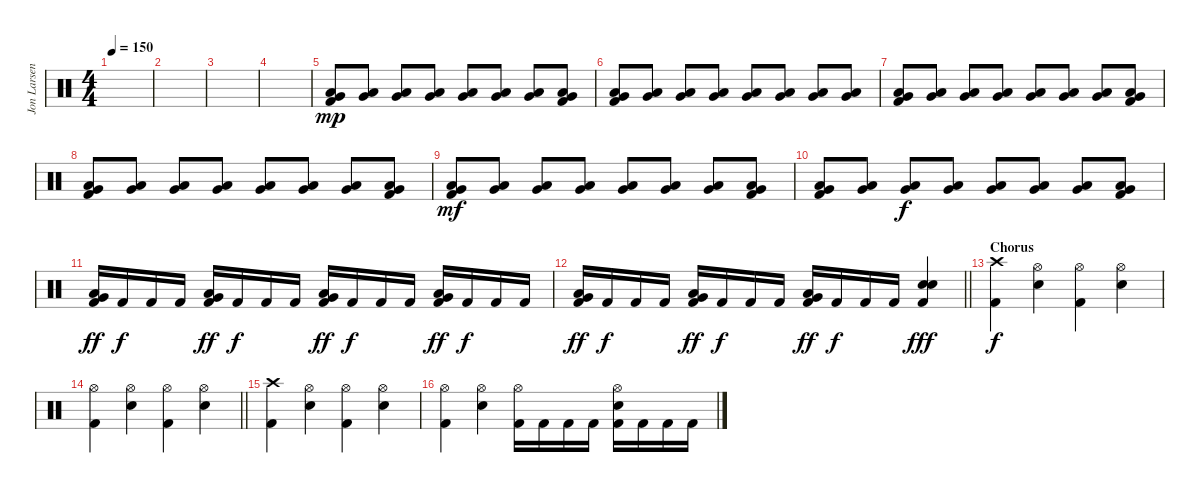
\track ("Jon Larsen" "Jon Larsen") {instrument percussion bank 10}
\staff {score}
\articulation defaults
\ts (4 4)
\tempo 150
\clef neutral
\ks c
|
|
|
|
("Low Floor Tom (hit)" "Very Low Tom (hit)" "Kick (hit) 2").8{dy mp} ("Low Floor Tom (hit)" "Very Low Tom (hit)").8 ("Low Floor Tom (hit)" "Very Low Tom (hit)").8 ("Low Floor Tom (hit)" "Very Low Tom (hit)").8 ("Low Floor Tom (hit)" "Very Low Tom (hit)").8 ("Low Floor Tom (hit)" "Very Low Tom (hit)").8 ("Low Floor Tom (hit)" "Very Low Tom (hit)").8 ("Low Floor Tom (hit)" "Very Low Tom (hit)" "Kick (hit) 2").8 |
("Low Floor Tom (hit)" "Very Low Tom (hit)" "Kick (hit) 2").8 ("Low Floor Tom (hit)" "Very Low Tom (hit)").8 ("Low Floor Tom (hit)" "Very Low Tom (hit)").8 ("Low Floor Tom (hit)" "Very Low Tom (hit)").8 ("Low Floor Tom (hit)" "Very Low Tom (hit)").8 ("Low Floor Tom (hit)" "Very Low Tom (hit)").8 ("Low Floor Tom (hit)" "Very Low Tom (hit)").8 ("Low Floor Tom (hit)" "Very Low Tom (hit)").8 |
("Low Floor Tom (hit)" "Very Low Tom (hit)" "Kick (hit) 2").8 ("Low Floor Tom (hit)" "Very Low Tom (hit)").8 ("Low Floor Tom (hit)" "Very Low Tom (hit)").8 ("Low Floor Tom (hit)" "Very Low Tom (hit)").8 ("Low Floor Tom (hit)" "Very Low Tom (hit)").8 ("Low Floor Tom (hit)" "Very Low Tom (hit)").8 ("Low Floor Tom (hit)" "Very Low Tom (hit)").8 ("Low Floor Tom (hit)" "Very Low Tom (hit)" "Kick (hit) 2").8 |
("Low Floor Tom (hit)" "Very Low Tom (hit)" "Kick (hit) 2").8 ("Low Floor Tom (hit)" "Very Low Tom (hit)").8 ("Low Floor Tom (hit)" "Very Low Tom (hit)").8 ("Low Floor Tom (hit)" "Very Low Tom (hit)").8 ("Low Floor Tom (hit)" "Very Low Tom (hit)").8 ("Low Floor Tom (hit)" "Very Low Tom (hit)").8 ("Low Floor Tom (hit)" "Very Low Tom (hit)").8 ("Low Floor Tom (hit)" "Very Low Tom (hit)" "Kick (hit) 2").8 |
("Low Floor Tom (hit)" "Very Low Tom (hit)" "Kick (hit) 2").8{dy mf} ("Low Floor Tom (hit)" "Very Low Tom (hit)").8 ("Low Floor Tom (hit)" "Very Low Tom (hit)").8 ("Low Floor Tom (hit)" "Very Low Tom (hit)").8 ("Low Floor Tom (hit)" "Very Low Tom (hit)").8 ("Low Floor Tom (hit)" "Very Low Tom (hit)").8 ("Low Floor Tom (hit)" "Very Low Tom (hit)").8 ("Low Floor Tom (hit)" "Very Low Tom (hit)" "Kick (hit) 2").8 |
("Low Floor Tom (hit)" "Very Low Tom (hit)" "Kick (hit) 2").8 ("Low Floor Tom (hit)" "Very Low Tom (hit)").8 ("Low Floor Tom (hit)" "Very Low Tom (hit)").8{dy f} ("Low Floor Tom (hit)" "Very Low Tom (hit)").8 ("Low Floor Tom (hit)" "Very Low Tom (hit)").8 ("Low Floor Tom (hit)" "Very Low Tom (hit)").8 ("Low Floor Tom (hit)" "Very Low Tom (hit)").8 ("Low Floor Tom (hit)" "Very Low Tom (hit)" "Kick (hit) 2").8 |
("Very Low Tom (hit)" "Low Floor Tom (hit)" "Kick (hit) 2").16{dy ff} "Kick (hit) 2".16{dy f} "Kick (hit) 2".16 "Kick (hit) 2".16 ("Very Low Tom (hit)" "Low Floor Tom (hit)" "Kick (hit) 2").16{dy ff} "Kick (hit) 2".16{dy f} "Kick (hit) 2".16 "Kick (hit) 2".16 ("Very Low Tom (hit)" "Low Floor Tom (hit)" "Kick (hit) 2").16{dy ff} "Kick (hit) 2".16{dy f} "Kick (hit) 2".16 "Kick (hit) 2".16 ("Very Low Tom (hit)" "Low Floor Tom (hit)" "Kick (hit) 2").16{dy ff} "Kick (hit) 2".16{dy f} "Kick (hit) 2".16 "Kick (hit) 2".16 |
\barLineRight lightlight
("Very Low Tom (hit)" "Low Floor Tom (hit)" "Kick (hit) 2").16{dy ff} "Kick (hit) 2".16{dy f} "Kick (hit) 2".16 "Kick (hit) 2".16 ("Very Low Tom (hit)" "Low Floor Tom (hit)" "Kick (hit) 2").16{dy ff} "Kick (hit) 2".16{dy f} "Kick (hit) 2".16 "Kick (hit) 2".16 ("Very Low Tom (hit)" "Low Floor Tom (hit)" "Kick (hit) 2").16{dy ff} "Kick (hit) 2".16{dy f} "Kick (hit) 2".16 "Kick (hit) 2".16 ("Electric Snare (hit)" "Electric Snare (hit)" "Kick (hit) 2").4{dy fff} |
\section ("" "Chorus")
("Crash high (hit)" "Kick (hit) 2").4{dy f} ("Hi-Hat (open)" "Electric Snare (hit)").4 ("Hi-Hat (open)" "Kick (hit) 2").4 ("Hi-Hat (open)" "Electric Snare (hit)").4 |
\barLineRight lightlight
("Hi-Hat (open)" "Kick (hit) 2").4 ("Hi-Hat (open)" "Electric Snare (hit)").4 ("Hi-Hat (open)" "Kick (hit) 2").4 ("Hi-Hat (open)" "Electric Snare (hit)").4 |
\section ("" "")
("Crash high (hit)" "Kick (hit) 2").4 ("Hi-Hat (open)" "Electric Snare (hit)").4 ("Hi-Hat (open)" "Kick (hit) 2").4 ("Hi-Hat (open)" "Electric Snare (hit)").4 |
("Hi-Hat (open)" "Kick (hit) 2").4 ("Hi-Hat (open)" "Electric Snare (hit)").4 ("Hi-Hat (open)" "Kick (hit) 2").16 "Kick (hit) 2".16 "Kick (hit) 2".16 "Kick (hit) 2".16 ("Hi-Hat (open)" "Electric Snare (hit)" "Kick (hit) 2").16 "Kick (hit) 2".16 "Kick (hit) 2".16 "Kick (hit) 2".16
